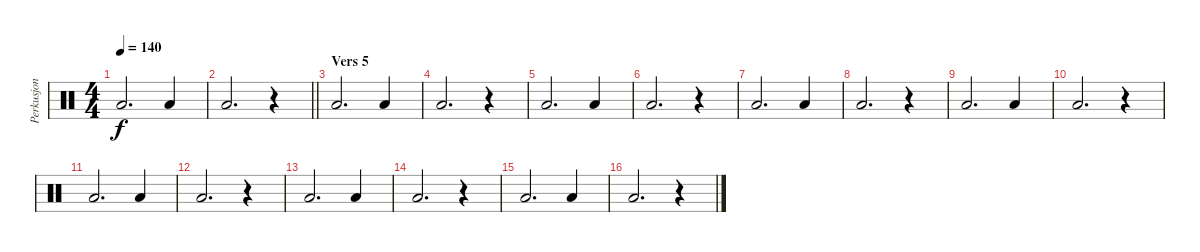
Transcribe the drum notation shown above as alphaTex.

\track ("Perkusjon" "Perkusjon") {instrument percussion}
\staff {score}
\articulation defaults
\ts (4 4)
\tempo 140
\clef neutral
\ks c "Low Floor Tom (hit)".2{d dy f} "Low Floor Tom (hit)".4
|
\barLineRight lightlight "Low Floor Tom (hit)".2{d}
r.4 |
\section ("" "Vers 5")
"Low Floor Tom (hit)".2{d} "Low Floor Tom (hit)".4 |
"Low Floor Tom (hit)".2{d} r.4 |
"Low Floor Tom (hit)".2{d} "Low Floor Tom (hit)".4 |
"Low Floor Tom (hit)".2{d} r.4 |
"Low Floor Tom (hit)".2{d} "Low Floor Tom (hit)".4 |
"Low Floor Tom (hit)".2{d} r.4 |
"Low Floor Tom (hit)".2{d} "Low Floor Tom (hit)".4 |
"Low Floor Tom (hit)".2{d} r.4 |
"Low Floor Tom (hit)".2{d} "Low Floor Tom (hit)".4 |
"Low Floor Tom (hit)".2{d} r.4 |
"Low Floor Tom (hit)".2{d} "Low Floor Tom (hit)".4 |
"Low Floor Tom (hit)".2{d} r.4 |
"Low Floor Tom (hit)".2{d} "Low Floor Tom (hit)".4 |
"Low Floor Tom (hit)".2{d} r.4
